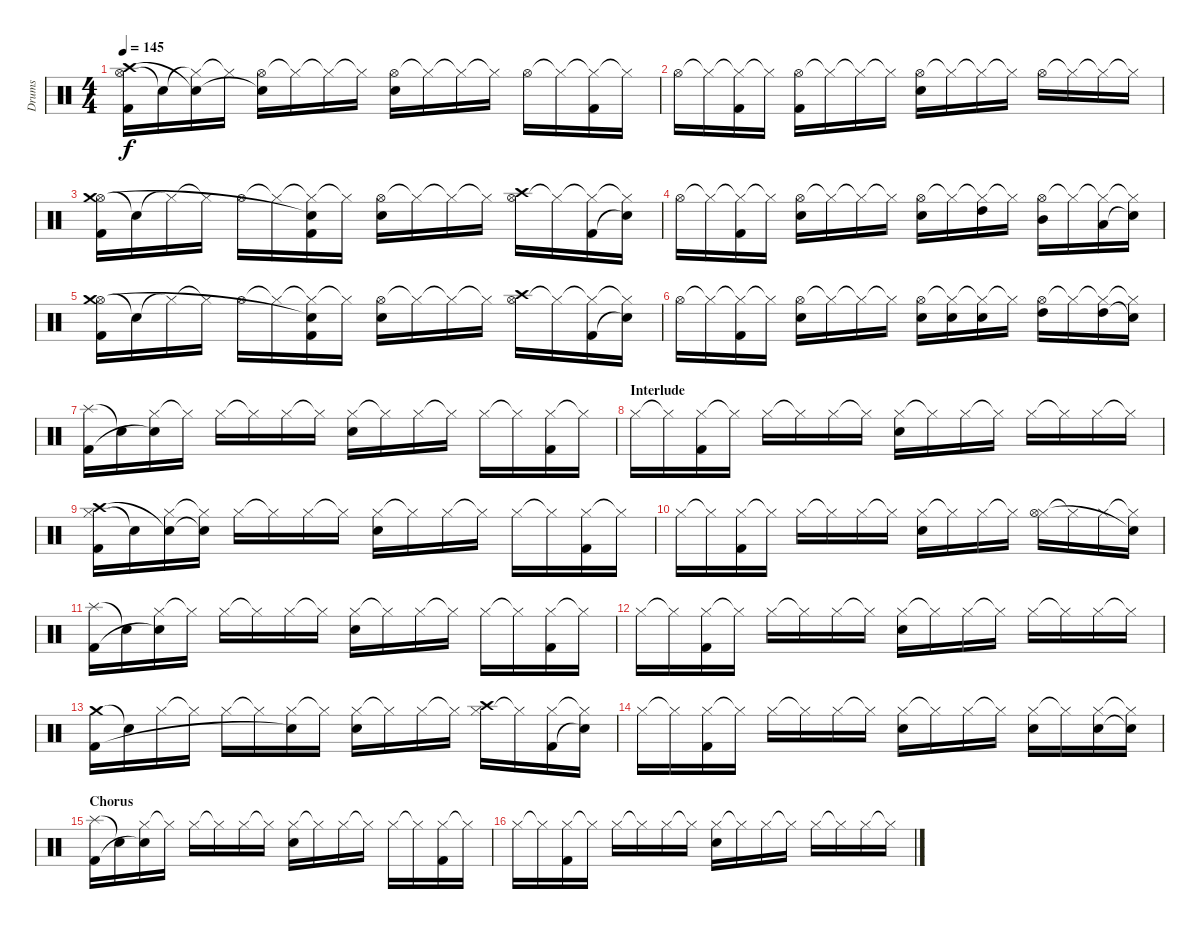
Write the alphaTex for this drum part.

\track ("Drums" "Drums") {instrument percussion}
\staff {score}
\articulation defaults
\ts (4 4)
\tempo 145
\clef neutral
\ks c
("Hi-Hat (open)" "Crash high (hit)" "Kick (hit) 2").16{dy f} "Snare (hit)"{t}.16 ("Hi-Hat (closed)"{t} "Snare (hit)"{t}).16 "Hi-Hat (closed)"{t}.16 ("Hi-Hat (open)" "Snare (hit)"{t}).16 "Hi-Hat (closed)"{t}.16 "Hi-Hat (closed)"{t}.16 "Hi-Hat (closed)"{t}.16 ("Hi-Hat (open)" "Snare (hit) 2").16 "Hi-Hat (closed)"{t}.16 "Hi-Hat (closed)"{t}.16 "Hi-Hat (closed)"{t}.16 "Hi-Hat (open)".16 "Hi-Hat (closed)"{t}.16 ("Hi-Hat (closed)"{t} "Kick (hit) 2").16 "Hi-Hat (closed)"{t}.16 |
"Hi-Hat (open)".16 "Hi-Hat (closed)"{t}.16 ("Hi-Hat (closed)"{t} "Kick (hit) 2").16 "Hi-Hat (closed)"{t}.16 ("Hi-Hat (open)" "Kick (hit) 2").16 "Hi-Hat (closed)"{t}.16 "Hi-Hat (closed)"{t}.16 "Hi-Hat (closed)"{t}.16 ("Hi-Hat (open)" "Snare (hit) 2").16 "Hi-Hat (closed)"{t}.16 "Hi-Hat (closed)"{t}.16 "Hi-Hat (closed)"{t}.16 "Hi-Hat (open)".16 "Hi-Hat (closed)"{t}.16 "Hi-Hat (closed)"{t}.16 "Hi-Hat (closed)"{t}.16 |
("Hi-Hat (open)" "Crash medium (hit)" "Kick (hit) 2").16 "Snare (hit)"{t}.16 "Hi-Hat (closed)"{t}.16 "Hi-Hat (closed)"{t}.16 "Hi-Hat (open)".16 "Hi-Hat (closed)"{t}.16 ("Hi-Hat (closed)"{t} "Snare (hit)"{t} "Kick (hit) 2").16 "Hi-Hat (closed)"{t}.16 ("Hi-Hat (open)" "Snare (hit) 2").16 "Hi-Hat (closed)"{t}.16 "Hi-Hat (closed)"{t}.16 "Hi-Hat (closed)"{t}.16 ("Hi-Hat (open)" "Crash high (hit)").16 "Hi-Hat (closed)"{t}.16 ("Hi-Hat (closed)"{t} "Kick (hit) 2").16 ("Hi-Hat (closed)"{t} "Snare (hit)"{t}).16 |
"Hi-Hat (open)".16 "Hi-Hat (closed)"{t}.16 ("Hi-Hat (closed)"{t} "Kick (hit) 2").16 "Hi-Hat (closed)"{t}.16 ("Hi-Hat (open)" "Snare (hit) 2").16 "Hi-Hat (closed)"{t}.16 "Hi-Hat (closed)"{t}.16 "Hi-Hat (closed)"{t}.16 ("Hi-Hat (open)" "Snare (hit) 2").16 "Hi-Hat (closed)"{t}.16 ("Hi-Hat (closed)"{t} "High Tom (hit)").16 "Hi-Hat (closed)"{t}.16 ("Hi-Hat (open)" "Mid Tom (hit)").16 "Hi-Hat (closed)"{t}.16 ("Hi-Hat (closed)"{t} "Low Tom (hit)").16 ("Hi-Hat (closed)"{t} "Snare (hit)"{t}).16 |
("Hi-Hat (open)" "Crash medium (hit)" "Kick (hit) 2").16 "Snare (hit)"{t}.16 "Hi-Hat (closed)"{t}.16 "Hi-Hat (closed)"{t}.16 "Hi-Hat (open)".16 "Hi-Hat (closed)"{t}.16 ("Hi-Hat (closed)"{t} "Snare (hit)"{t} "Kick (hit) 2").16 "Hi-Hat (closed)"{t}.16 ("Hi-Hat (open)" "Snare (hit) 2").16 "Hi-Hat (closed)"{t}.16 "Hi-Hat (closed)"{t}.16 "Hi-Hat (closed)"{t}.16 ("Hi-Hat (open)" "Crash high (hit)").16 "Hi-Hat (closed)"{t}.16 ("Hi-Hat (closed)"{t} "Kick (hit) 2").16 ("Hi-Hat (closed)"{t} "Snare (hit)"{t}).16 |
"Hi-Hat (open)".16 "Hi-Hat (closed)"{t}.16 ("Hi-Hat (closed)"{t} "Kick (hit) 2").16 "Hi-Hat (closed)"{t}.16 ("Hi-Hat (open)" "Snare (hit) 2").16 "Hi-Hat (closed)"{t}.16 "Hi-Hat (closed)"{t}.16 "Hi-Hat (closed)"{t}.16 ("Hi-Hat (open)" "Snare (hit) 2").16 ("Hi-Hat (closed)"{t} "Snare (hit) 2").16 ("Hi-Hat (closed)"{t} "Snare (hit) 2").16 "Hi-Hat (closed)"{t}.16 ("Hi-Hat (open)" "High Tom (hit)").16 "Hi-Hat (closed)"{t}.16 ("Hi-Hat (closed)"{t} "High Tom (hit)").16 ("Hi-Hat (closed)"{t} "Snare (hit)"{t}).16 |
("Splash (hit)" "Kick (hit) 2").16 "Snare (hit)"{t}.16 ("Hi-Hat (closed)" "Snare (hit)"{t}).16 "Hi-Hat (closed)"{t}.16 "Hi-Hat (closed)".16 "Hi-Hat (closed)"{t}.16 "Hi-Hat (closed)".16 "Hi-Hat (closed)"{t}.16 ("Hi-Hat (closed)" "Snare (hit) 2").16 "Hi-Hat (closed)"{t}.16 "Hi-Hat (closed)".16 "Hi-Hat (closed)"{t}.16 "Hi-Hat (closed)".16 "Hi-Hat (closed)"{t}.16 ("Hi-Hat (closed)" "Kick (hit) 2").16 "Hi-Hat (closed)"{t}.16 |
\section ("" "Interlude")
"Hi-Hat (closed)".16 "Hi-Hat (closed)"{t}.16 ("Hi-Hat (closed)" "Kick (hit) 2").16 "Hi-Hat (closed)"{t}.16 "Hi-Hat (closed)".16 "Hi-Hat (closed)"{t}.16 "Hi-Hat (closed)".16 "Hi-Hat (closed)"{t}.16 ("Hi-Hat (closed)" "Snare (hit) 2").16 "Hi-Hat (closed)"{t}.16 "Hi-Hat (closed)".16 "Hi-Hat (closed)"{t}.16 "Hi-Hat (closed)".16 "Hi-Hat (closed)"{t}.16 "Hi-Hat (closed)".16 "Hi-Hat (closed)"{t}.16 |
("Hi-Hat (closed)" "Crash high (hit)" "Kick (hit) 2").16 "Snare (hit)"{t}.16 ("Hi-Hat (closed)" "Snare (hit)"{t}).16 ("Hi-Hat (closed)"{t} "Snare (hit)"{t}).16 "Hi-Hat (closed)".16 "Hi-Hat (closed)"{t}.16 "Hi-Hat (closed)".16 "Hi-Hat (closed)"{t}.16 ("Hi-Hat (closed)" "Snare (hit) 2").16 "Hi-Hat (closed)"{t}.16 "Hi-Hat (closed)".16 "Hi-Hat (closed)"{t}.16 "Hi-Hat (closed)".16 "Hi-Hat (closed)"{t}.16 ("Hi-Hat (closed)" "Kick (hit) 2").16 "Hi-Hat (closed)"{t}.16 |
"Hi-Hat (closed)".16 "Hi-Hat (closed)"{t}.16 ("Hi-Hat (closed)" "Kick (hit) 2").16 "Hi-Hat (closed)"{t}.16 "Hi-Hat (closed)".16 "Hi-Hat (closed)"{t}.16 "Hi-Hat (closed)".16 "Hi-Hat (closed)"{t}.16 ("Hi-Hat (closed)" "Snare (hit) 2").16 "Hi-Hat (closed)"{t}.16 "Hi-Hat (closed)".16 "Hi-Hat (closed)"{t}.16 ("Hi-Hat (closed)" "Hi-Hat (open)").16 "Hi-Hat (closed)"{t}.16 "Hi-Hat (closed)".16 ("Hi-Hat (closed)"{t} "Snare (hit)"{t}).16 |
("Splash (hit)" "Kick (hit) 2").16 "Snare (hit)"{t}.16 ("Hi-Hat (closed)" "Snare (hit)"{t}).16 "Hi-Hat (closed)"{t}.16 "Hi-Hat (closed)".16 "Hi-Hat (closed)"{t}.16 "Hi-Hat (closed)".16 "Hi-Hat (closed)"{t}.16 ("Hi-Hat (closed)" "Snare (hit) 2").16 "Hi-Hat (closed)"{t}.16 "Hi-Hat (closed)".16 "Hi-Hat (closed)"{t}.16 "Hi-Hat (closed)".16 "Hi-Hat (closed)"{t}.16 ("Hi-Hat (closed)" "Kick (hit) 2").16 "Hi-Hat (closed)"{t}.16 |
"Hi-Hat (closed)".16 "Hi-Hat (closed)"{t}.16 ("Hi-Hat (closed)" "Kick (hit) 2").16 "Hi-Hat (closed)"{t}.16 "Hi-Hat (closed)".16 "Hi-Hat (closed)"{t}.16 "Hi-Hat (closed)".16 "Hi-Hat (closed)"{t}.16 ("Hi-Hat (closed)" "Snare (hit) 2").16 "Hi-Hat (closed)"{t}.16 "Hi-Hat (closed)".16 "Hi-Hat (closed)"{t}.16 "Hi-Hat (closed)".16 "Hi-Hat (closed)"{t}.16 "Hi-Hat (closed)".16 "Hi-Hat (closed)"{t}.16 |
("Crash medium (hit)" "Kick (hit) 2").16 "Snare (hit)"{t}.16 "Hi-Hat (closed)".16 "Hi-Hat (closed)"{t}.16 "Hi-Hat (closed)".16 "Hi-Hat (closed)"{t}.16 ("Hi-Hat (closed)" "Snare (hit)"{t}).16 "Hi-Hat (closed)"{t}.16 ("Hi-Hat (closed)" "Snare (hit) 2").16 "Hi-Hat (closed)"{t}.16 "Hi-Hat (closed)".16 "Hi-Hat (closed)"{t}.16 ("Hi-Hat (closed)" "Crash high (hit)").16 "Hi-Hat (closed)"{t}.16 ("Hi-Hat (closed)" "Kick (hit) 2").16 ("Hi-Hat (closed)"{t} "Snare (hit)"{t}).16 |
"Hi-Hat (closed)".16 "Hi-Hat (closed)"{t}.16 ("Hi-Hat (closed)" "Kick (hit) 2").16 "Hi-Hat (closed)"{t}.16 "Hi-Hat (closed)".16 "Hi-Hat (closed)"{t}.16 "Hi-Hat (closed)".16 "Hi-Hat (closed)"{t}.16 ("Hi-Hat (closed)" "Snare (hit) 2").16 "Hi-Hat (closed)"{t}.16 "Hi-Hat (closed)".16 "Hi-Hat (closed)"{t}.16 ("Hi-Hat (closed)" "Snare (hit) 2").16 "Hi-Hat (closed)"{t}.16 ("Hi-Hat (closed)" "Snare (hit) 2").16 ("Hi-Hat (closed)"{t} "Snare (hit)"{t}).16 |
\section ("" "Chorus")
("Splash (hit)" "Kick (hit) 2").16 "Snare (hit)"{t}.16 ("Hi-Hat (closed)" "Snare (hit)"{t}).16 "Hi-Hat (closed)"{t}.16 "Hi-Hat (closed)".16 "Hi-Hat (closed)"{t}.16 "Hi-Hat (closed)".16 "Hi-Hat (closed)"{t}.16 ("Hi-Hat (closed)" "Snare (hit) 2").16 "Hi-Hat (closed)"{t}.16 "Hi-Hat (closed)".16 "Hi-Hat (closed)"{t}.16 "Hi-Hat (closed)".16 "Hi-Hat (closed)"{t}.16 ("Hi-Hat (closed)" "Kick (hit) 2").16 "Hi-Hat (closed)"{t}.16 |
"Hi-Hat (closed)".16 "Hi-Hat (closed)"{t}.16 ("Hi-Hat (closed)" "Kick (hit) 2").16 "Hi-Hat (closed)"{t}.16 "Hi-Hat (closed)".16 "Hi-Hat (closed)"{t}.16 "Hi-Hat (closed)".16 "Hi-Hat (closed)"{t}.16 ("Hi-Hat (closed)" "Snare (hit) 2").16 "Hi-Hat (closed)"{t}.16 "Hi-Hat (closed)".16 "Hi-Hat (closed)"{t}.16 "Hi-Hat (closed)".16 "Hi-Hat (closed)"{t}.16 "Hi-Hat (closed)".16 "Hi-Hat (closed)"{t}.16
